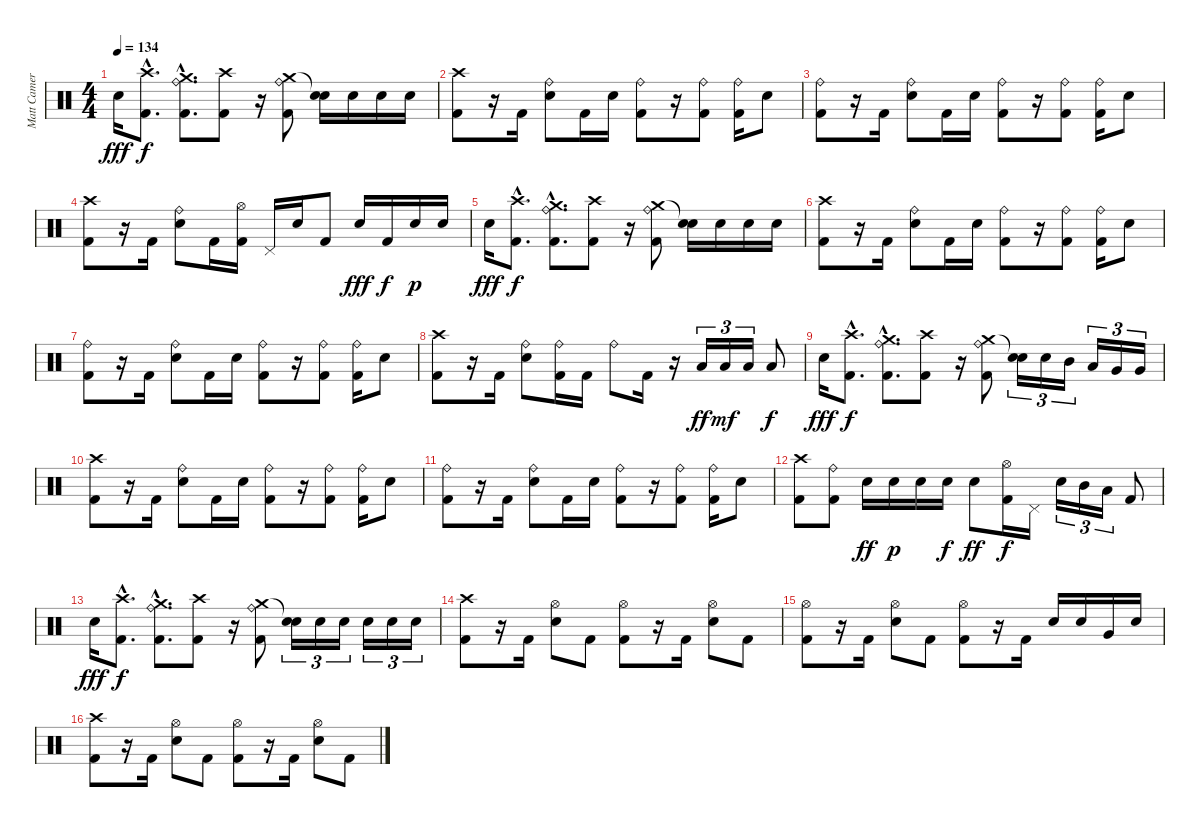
\track ("Matt Cameron" "Matt Camer") {instrument percussion}
\staff {score}
\articulation defaults
\ts (4 4)
\tempo 134
\clef neutral
\ks c "Electric Snare (hit)".16{dy fff}
("Crash high (hit)"{hac} "Kick (hit) 2"{hac}).8{d dy f} ("Ride (bell)"{hac} "Crash medium (hit)"{hac} "Kick (hit) 2"{hac}).8{d} ("Crash high (hit)" "Kick (hit) 2").8 r.16 ("Ride (bell)" "Crash medium (hit)" "Kick (hit) 2").8 ("Electric Snare (hit)" "Snare (hit)"{t}).16 "Electric Snare (hit)".16 "Electric Snare (hit)".16 "Electric Snare (hit)".16 |
("Crash high (hit)" "Kick (hit) 2").8 r.16 "Kick (hit) 2".16 ("Ride (bell)" "Electric Snare (hit)").8 "Kick (hit) 2".16 "Electric Snare (hit)".16 ("Ride (bell)" "Kick (hit) 2").8 r.16 ("Ride (bell)" "Kick (hit) 2").8 ("Ride (bell)" "Kick (hit) 2").16 "Electric Snare (hit)".8 |
("Ride (bell)" "Kick (hit) 2").8 r.16 "Kick (hit) 2".16 ("Ride (bell)" "Electric Snare (hit)").8 "Kick (hit) 2".16 "Electric Snare (hit)".16 ("Ride (bell)" "Kick (hit) 2").8 r.16 ("Ride (bell)" "Kick (hit) 2").8 ("Ride (bell)" "Kick (hit) 2").16 "Electric Snare (hit)".8 |
("Crash high (hit)" "Kick (hit) 2").8 r.16 "Kick (hit) 2".16 ("Ride (bell)" "Electric Snare (hit)").8 "Kick (hit) 2".16 ("Hi-Hat (open)" "Kick (hit) 2").16 "Pedal Hi-Hat (hit)".16 "Electric Snare (hit)".16 "Kick (hit) 2".8 "Electric Snare (hit)".16{dy fff} "Kick (hit) 2".16{dy f} "Electric Snare (hit)".16{dy p} "Electric Snare (hit)".16 |
"Electric Snare (hit)".16{dy fff} ("Crash high (hit)"{hac} "Kick (hit) 2"{hac}).8{d dy f} ("Ride (bell)"{hac} "Crash medium (hit)"{hac} "Kick (hit) 2"{hac}).8{d} ("Crash high (hit)" "Kick (hit) 2").8 r.16 ("Ride (bell)" "Crash medium (hit)" "Kick (hit) 2").8 ("Electric Snare (hit)" "Snare (hit)"{t}).16 "Electric Snare (hit)".16 "Electric Snare (hit)".16 "Electric Snare (hit)".16 |
("Crash high (hit)" "Kick (hit) 2").8 r.16 "Kick (hit) 2".16 ("Ride (bell)" "Electric Snare (hit)").8 "Kick (hit) 2".16 "Electric Snare (hit)".16 ("Ride (bell)" "Kick (hit) 2").8 r.16 ("Ride (bell)" "Kick (hit) 2").8 ("Ride (bell)" "Kick (hit) 2").16 "Electric Snare (hit)".8 |
("Ride (bell)" "Kick (hit) 2").8 r.16 "Kick (hit) 2".16 ("Ride (bell)" "Electric Snare (hit)").8 "Kick (hit) 2".16 "Electric Snare (hit)".16 ("Ride (bell)" "Kick (hit) 2").8 r.16 ("Ride (bell)" "Kick (hit) 2").8 ("Ride (bell)" "Kick (hit) 2").16 "Electric Snare (hit)".8 |
("Crash high (hit)" "Kick (hit) 2").8 r.16 "Kick (hit) 2".16 ("Ride (bell)" "Electric Snare (hit)").8 ("Ride (bell)" "Kick (hit) 2").16 "Kick (hit) 2".16 "Ride (bell)".8 "Kick (hit) 2".16 r.16 "Low Floor Tom (hit)".16{tu (3 2) dy ff} "Low Floor Tom (hit)".16{tu (3 2) dy mf} "Low Floor Tom (hit)".16{tu (3 2)} "Low Floor Tom (hit)".8{dy f} |
"Electric Snare (hit)".16{dy fff} ("Crash high (hit)"{hac} "Kick (hit) 2"{hac}).8{d dy f} ("Ride (bell)"{hac} "Crash medium (hit)"{hac} "Kick (hit) 2"{hac}).8{d} ("Crash high (hit)" "Kick (hit) 2").8 r.16 ("Ride (bell)" "Crash medium (hit)" "Kick (hit) 2").8 ("Electric Snare (hit)" "Snare (hit)"{t}).16{tu (3 2)} "Electric Snare (hit)".16{tu (3 2)} "Mid Tom (hit)".16{tu (3 2)} "Low Tom (hit)".16{tu (3 2)} "Very Low Tom (hit)".16{tu (3 2)} "Very Low Tom (hit)".16{tu (3 2)} |
("Crash high (hit)" "Kick (hit) 2").8 r.16 "Kick (hit) 2".16 ("Ride (bell)" "Electric Snare (hit)").8 "Kick (hit) 2".16 "Electric Snare (hit)".16 ("Ride (bell)" "Kick (hit) 2").8 r.16 ("Ride (bell)" "Kick (hit) 2").8 ("Ride (bell)" "Kick (hit) 2").16 "Electric Snare (hit)".8 |
("Ride (bell)" "Kick (hit) 2").8 r.16 "Kick (hit) 2".16 ("Ride (bell)" "Electric Snare (hit)").8 "Kick (hit) 2".16 "Electric Snare (hit)".16 ("Ride (bell)" "Kick (hit) 2").8 r.16 ("Ride (bell)" "Kick (hit) 2").8 ("Ride (bell)" "Kick (hit) 2").16 "Electric Snare (hit)".8 |
("Crash high (hit)" "Kick (hit) 2").8 ("Ride (bell)" "Kick (hit) 2").8 "Electric Snare (hit)".16{dy ff} "Electric Snare (hit)".16{dy p} "Electric Snare (hit)".16 "Electric Snare (hit)".16{dy f} "Electric Snare (hit)".8{dy ff} ("Hi-Hat (open)" "Kick (hit) 2").16{dy f} "Pedal Hi-Hat (hit)".16 "Electric Snare (hit)".16{tu (3 2)} "Mid Tom (hit)".16{tu (3 2)} "Low Tom (hit)".16{tu (3 2)} "Kick (hit) 2".8 |
"Electric Snare (hit)".16{dy fff} ("Crash high (hit)"{hac} "Kick (hit) 2"{hac}).8{d dy f} ("Ride (bell)"{hac} "Crash medium (hit)"{hac} "Kick (hit) 2"{hac}).8{d} ("Crash high (hit)" "Kick (hit) 2").8 r.16 ("Ride (bell)" "Crash medium (hit)" "Kick (hit) 2").8 ("Electric Snare (hit)" "Snare (hit)"{t}).16{tu (3 2)} "Electric Snare (hit)".16{tu (3 2)} "Electric Snare (hit)".16{tu (3 2)} "Electric Snare (hit)".16{tu (3 2)} "Electric Snare (hit)".16{tu (3 2)} "Electric Snare (hit)".16{tu (3 2)} |
("Crash high (hit)" "Kick (hit) 2").8 r.16 "Kick (hit) 2".16 ("Hi-Hat (open)" "Electric Snare (hit)").8 "Kick (hit) 2".8 ("Hi-Hat (open)" "Kick (hit) 2").8 r.16 "Kick (hit) 2".16 ("Hi-Hat (open)" "Electric Snare (hit)").8 "Kick (hit) 2".8 |
("Hi-Hat (open)" "Kick (hit) 2").8 r.16 "Kick (hit) 2".16 ("Hi-Hat (open)" "Electric Snare (hit)").8 "Kick (hit) 2".8 ("Hi-Hat (open)" "Kick (hit) 2").8 r.16 "Kick (hit) 2".16 "Electric Snare (hit)".16 "Electric Snare (hit)".16 "Very Low Tom (hit)".16 "Electric Snare (hit)".16 |
("Crash high (hit)" "Kick (hit) 2").8 r.16 "Kick (hit) 2".16 ("Hi-Hat (open)" "Electric Snare (hit)").8 "Kick (hit) 2".8 ("Hi-Hat (open)" "Kick (hit) 2").8 r.16 "Kick (hit) 2".16 ("Hi-Hat (open)" "Electric Snare (hit)").8 "Kick (hit) 2".8
